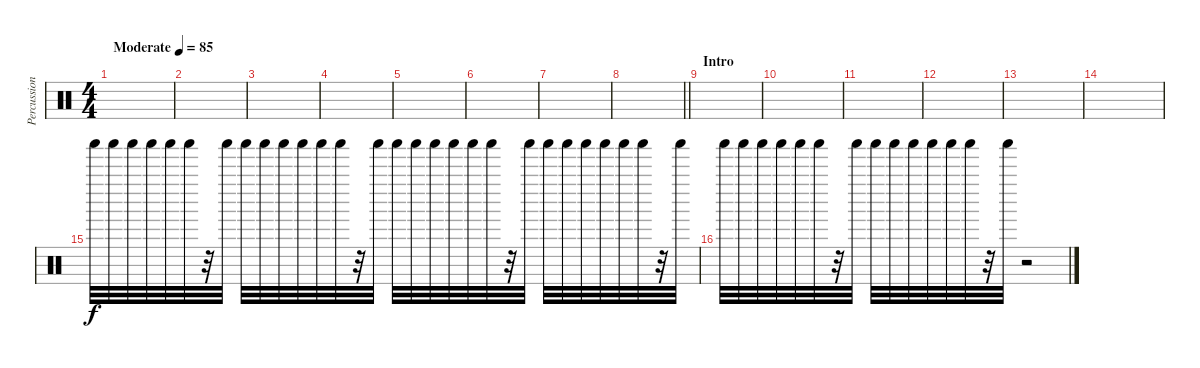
\track ("Percussion" "Percussion") {instrument percussion}
\staff {score}
\articulation defaults
\ts (4 4)
\tempo (85 "Moderate")
\clef neutral
\ks c
|
|
|
|
|
|
|
\barLineRight lightlight
|
\section ("" "Intro")
|
|
|
|
|
|
"Shaker (hit)".32{volume 13} "Shaker (hit)".32 "Shaker (hit)".32 "Shaker (hit)".32 "Shaker (hit)".32 "Shaker (hit)".32 r.32 "Shaker (hit)".32 "Shaker (hit)".32 "Shaker (hit)".32 "Shaker (hit)".32 "Shaker (hit)".32 "Shaker (hit)".32 "Shaker (hit)".32 r.32 "Shaker (hit)".32 "Shaker (hit)".32 "Shaker (hit)".32 "Shaker (hit)".32 "Shaker (hit)".32 "Shaker (hit)".32 "Shaker (hit)".32 r.32 "Shaker (hit)".32{volume 0} "Shaker (hit)".32 "Shaker (hit)".32 "Shaker (hit)".32 "Shaker (hit)".32 "Shaker (hit)".32 "Shaker (hit)".32 r.32 "Shaker (hit)".32 |
"Shaker (hit)".32 "Shaker (hit)".32 "Shaker (hit)".32 "Shaker (hit)".32 "Shaker (hit)".32 "Shaker (hit)".32 r.32 "Shaker (hit)".32 "Shaker (hit)".32 "Shaker (hit)".32 "Shaker (hit)".32 "Shaker (hit)".32 "Shaker (hit)".32 "Shaker (hit)".32 r.32 "Shaker (hit)".32 r.2
